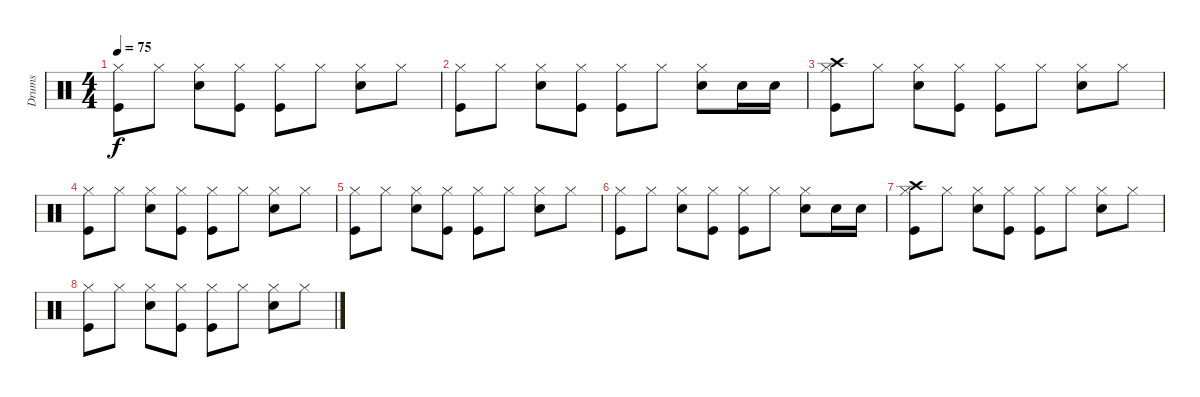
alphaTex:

\track ("Drums" "Drums") {instrument percussion}
\staff {score}
\articulation defaults
\ts (4 4)
\tempo 75
\clef neutral
\ks c
("Hi-Hat (closed)" "Kick (hit)").8{dy f} "Hi-Hat (closed)".8 ("Hi-Hat (closed)" "Snare (hit) 2").8 ("Hi-Hat (closed)" "Kick (hit)").8 ("Hi-Hat (closed)" "Kick (hit)").8 "Hi-Hat (closed)".8 ("Hi-Hat (closed)" "Snare (hit) 2").8 "Hi-Hat (closed)".8 |
("Hi-Hat (closed)" "Kick (hit)").8 "Hi-Hat (closed)".8 ("Hi-Hat (closed)" "Snare (hit) 2").8 ("Hi-Hat (closed)" "Kick (hit)").8 ("Hi-Hat (closed)" "Kick (hit)").8 "Hi-Hat (closed)".8 ("Hi-Hat (closed)" "Snare (hit) 2").8 "Snare (hit) 2".16 "Snare (hit) 2".16 |
("Crash high (hit)" "Hi-Hat (closed)" "Kick (hit)").8 "Hi-Hat (closed)".8 ("Hi-Hat (closed)" "Snare (hit) 2").8 ("Hi-Hat (closed)" "Kick (hit)").8 ("Hi-Hat (closed)" "Kick (hit)").8 "Hi-Hat (closed)".8 ("Hi-Hat (closed)" "Snare (hit) 2").8 "Hi-Hat (closed)".8 |
("Hi-Hat (closed)" "Kick (hit)").8 "Hi-Hat (closed)".8 ("Hi-Hat (closed)" "Snare (hit) 2").8 ("Hi-Hat (closed)" "Kick (hit)").8 ("Hi-Hat (closed)" "Kick (hit)").8 "Hi-Hat (closed)".8 ("Hi-Hat (closed)" "Snare (hit) 2").8 "Hi-Hat (closed)".8 |
("Hi-Hat (closed)" "Kick (hit)").8 "Hi-Hat (closed)".8 ("Hi-Hat (closed)" "Snare (hit) 2").8 ("Hi-Hat (closed)" "Kick (hit)").8 ("Hi-Hat (closed)" "Kick (hit)").8 "Hi-Hat (closed)".8 ("Hi-Hat (closed)" "Snare (hit) 2").8 "Hi-Hat (closed)".8 |
("Hi-Hat (closed)" "Kick (hit)").8 "Hi-Hat (closed)".8 ("Hi-Hat (closed)" "Snare (hit) 2").8 ("Hi-Hat (closed)" "Kick (hit)").8 ("Hi-Hat (closed)" "Kick (hit)").8 "Hi-Hat (closed)".8 ("Hi-Hat (closed)" "Snare (hit) 2").8 "Snare (hit) 2".16 "Snare (hit) 2".16 |
("Crash high (hit)" "Hi-Hat (closed)" "Kick (hit)").8 "Hi-Hat (closed)".8 ("Hi-Hat (closed)" "Snare (hit) 2").8 ("Hi-Hat (closed)" "Kick (hit)").8 ("Hi-Hat (closed)" "Kick (hit)").8 "Hi-Hat (closed)".8 ("Hi-Hat (closed)" "Snare (hit) 2").8 "Hi-Hat (closed)".8 |
("Hi-Hat (closed)" "Kick (hit)").8 "Hi-Hat (closed)".8 ("Hi-Hat (closed)" "Snare (hit) 2").8 ("Hi-Hat (closed)" "Kick (hit)").8 ("Hi-Hat (closed)" "Kick (hit)").8 "Hi-Hat (closed)".8 ("Hi-Hat (closed)" "Snare (hit) 2").8 "Hi-Hat (closed)".8
